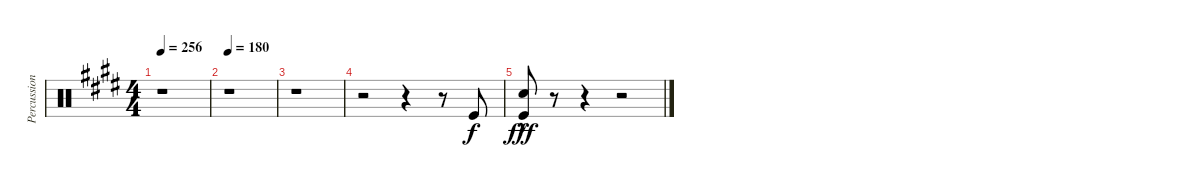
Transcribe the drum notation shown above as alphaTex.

\track ("Percussion" "Percussion") {instrument percussion}
\staff {score}
\articulation defaults
\ts (4 4)
\tempo 256
\clef neutral
\ks e
r.1{dy fff} |
\tempo 180
r.1 |
r.1 |
r.2 r.4 r.8 "Kick (hit)".8{dy f} |
("Snare (hit) 2"{hac} "Kick (hit)").8{dy fff} r.8 r.4 r.2
